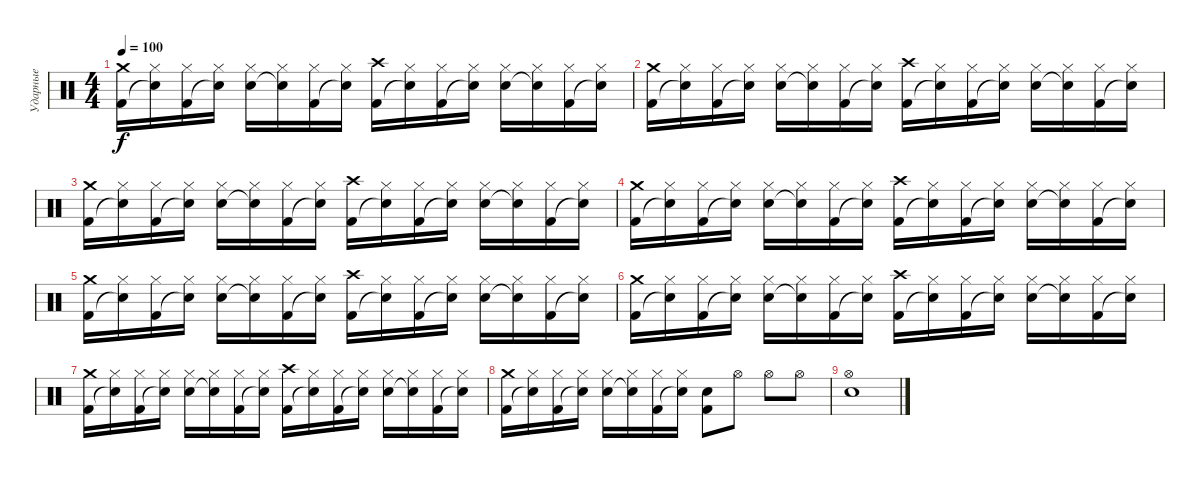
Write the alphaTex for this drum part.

\track ("Ударные" "Ударные") {instrument percussion}
\staff {score}
\articulation defaults
\ts (4 4)
\tempo 100
\clef neutral
\ks c
("Crash medium (hit)" "Kick (hit) 2").16{dy f} ("Hi-Hat (closed)" "Snare (hit)"{t}).16 ("Hi-Hat (closed)" "Kick (hit) 2").16 ("Hi-Hat (closed)" "Snare (hit)"{t}).16 ("Hi-Hat (closed)" "Snare (hit) 2").16 ("Hi-Hat (closed)" "Snare (hit)"{t}).16 ("Hi-Hat (closed)" "Kick (hit) 2").16 ("Hi-Hat (closed)" "Snare (hit)"{t}).16 ("Crash high (hit)" "Kick (hit) 2").16 ("Hi-Hat (closed)" "Snare (hit)"{t}).16 ("Hi-Hat (closed)" "Kick (hit) 2").16 ("Hi-Hat (closed)" "Snare (hit)"{t}).16 ("Hi-Hat (closed)" "Snare (hit) 2").16 ("Hi-Hat (closed)" "Snare (hit)"{t}).16 ("Hi-Hat (closed)" "Kick (hit) 2").16 ("Hi-Hat (closed)" "Snare (hit)"{t}).16 |
("Crash medium (hit)" "Kick (hit) 2").16 ("Hi-Hat (closed)" "Snare (hit)"{t}).16 ("Hi-Hat (closed)" "Kick (hit) 2").16 ("Hi-Hat (closed)" "Snare (hit)"{t}).16 ("Hi-Hat (closed)" "Snare (hit) 2").16 ("Hi-Hat (closed)" "Snare (hit)"{t}).16 ("Hi-Hat (closed)" "Kick (hit) 2").16 ("Hi-Hat (closed)" "Snare (hit)"{t}).16 ("Crash high (hit)" "Kick (hit) 2").16 ("Hi-Hat (closed)" "Snare (hit)"{t}).16 ("Hi-Hat (closed)" "Kick (hit) 2").16 ("Hi-Hat (closed)" "Snare (hit)"{t}).16 ("Hi-Hat (closed)" "Snare (hit) 2").16 ("Hi-Hat (closed)" "Snare (hit)"{t}).16 ("Hi-Hat (closed)" "Kick (hit) 2").16 ("Hi-Hat (closed)" "Snare (hit)"{t}).16 |
("Crash medium (hit)" "Kick (hit) 2").16 ("Hi-Hat (closed)" "Snare (hit)"{t}).16 ("Hi-Hat (closed)" "Kick (hit) 2").16 ("Hi-Hat (closed)" "Snare (hit)"{t}).16 ("Hi-Hat (closed)" "Snare (hit) 2").16 ("Hi-Hat (closed)" "Snare (hit)"{t}).16 ("Hi-Hat (closed)" "Kick (hit) 2").16 ("Hi-Hat (closed)" "Snare (hit)"{t}).16 ("Crash high (hit)" "Kick (hit) 2").16 ("Hi-Hat (closed)" "Snare (hit)"{t}).16 ("Hi-Hat (closed)" "Kick (hit) 2").16 ("Hi-Hat (closed)" "Snare (hit)"{t}).16 ("Hi-Hat (closed)" "Snare (hit) 2").16 ("Hi-Hat (closed)" "Snare (hit)"{t}).16 ("Hi-Hat (closed)" "Kick (hit) 2").16 ("Hi-Hat (closed)" "Snare (hit)"{t}).16 |
("Crash medium (hit)" "Kick (hit) 2").16 ("Hi-Hat (closed)" "Snare (hit)"{t}).16 ("Hi-Hat (closed)" "Kick (hit) 2").16 ("Hi-Hat (closed)" "Snare (hit)"{t}).16 ("Hi-Hat (closed)" "Snare (hit) 2").16 ("Hi-Hat (closed)" "Snare (hit)"{t}).16 ("Hi-Hat (closed)" "Kick (hit) 2").16 ("Hi-Hat (closed)" "Snare (hit)"{t}).16 ("Crash high (hit)" "Kick (hit) 2").16 ("Hi-Hat (closed)" "Snare (hit)"{t}).16 ("Hi-Hat (closed)" "Kick (hit) 2").16 ("Hi-Hat (closed)" "Snare (hit)"{t}).16 ("Hi-Hat (closed)" "Snare (hit) 2").16 ("Hi-Hat (closed)" "Snare (hit)"{t}).16 ("Hi-Hat (closed)" "Kick (hit) 2").16 ("Hi-Hat (closed)" "Snare (hit)"{t}).16 |
("Crash medium (hit)" "Kick (hit) 2").16 ("Hi-Hat (closed)" "Snare (hit)"{t}).16 ("Hi-Hat (closed)" "Kick (hit) 2").16 ("Hi-Hat (closed)" "Snare (hit)"{t}).16 ("Hi-Hat (closed)" "Snare (hit) 2").16 ("Hi-Hat (closed)" "Snare (hit)"{t}).16 ("Hi-Hat (closed)" "Kick (hit) 2").16 ("Hi-Hat (closed)" "Snare (hit)"{t}).16 ("Crash high (hit)" "Kick (hit) 2").16 ("Hi-Hat (closed)" "Snare (hit)"{t}).16 ("Hi-Hat (closed)" "Kick (hit) 2").16 ("Hi-Hat (closed)" "Snare (hit)"{t}).16 ("Hi-Hat (closed)" "Snare (hit) 2").16 ("Hi-Hat (closed)" "Snare (hit)"{t}).16 ("Hi-Hat (closed)" "Kick (hit) 2").16 ("Hi-Hat (closed)" "Snare (hit)"{t}).16 |
("Crash medium (hit)" "Kick (hit) 2").16 ("Hi-Hat (closed)" "Snare (hit)"{t}).16 ("Hi-Hat (closed)" "Kick (hit) 2").16 ("Hi-Hat (closed)" "Snare (hit)"{t}).16 ("Hi-Hat (closed)" "Snare (hit) 2").16 ("Hi-Hat (closed)" "Snare (hit)"{t}).16 ("Hi-Hat (closed)" "Kick (hit) 2").16 ("Hi-Hat (closed)" "Snare (hit)"{t}).16 ("Crash high (hit)" "Kick (hit) 2").16 ("Hi-Hat (closed)" "Snare (hit)"{t}).16 ("Hi-Hat (closed)" "Kick (hit) 2").16 ("Hi-Hat (closed)" "Snare (hit)"{t}).16 ("Hi-Hat (closed)" "Snare (hit) 2").16 ("Hi-Hat (closed)" "Snare (hit)"{t}).16 ("Hi-Hat (closed)" "Kick (hit) 2").16 ("Hi-Hat (closed)" "Snare (hit)"{t}).16 |
("Crash medium (hit)" "Kick (hit) 2").16 ("Hi-Hat (closed)" "Snare (hit)"{t}).16 ("Hi-Hat (closed)" "Kick (hit) 2").16 ("Hi-Hat (closed)" "Snare (hit)"{t}).16 ("Hi-Hat (closed)" "Snare (hit) 2").16 ("Hi-Hat (closed)" "Snare (hit)"{t}).16 ("Hi-Hat (closed)" "Kick (hit) 2").16 ("Hi-Hat (closed)" "Snare (hit)"{t}).16 ("Crash high (hit)" "Kick (hit) 2").16 ("Hi-Hat (closed)" "Snare (hit)"{t}).16 ("Hi-Hat (closed)" "Kick (hit) 2").16 ("Hi-Hat (closed)" "Snare (hit)"{t}).16 ("Hi-Hat (closed)" "Snare (hit) 2").16 ("Hi-Hat (closed)" "Snare (hit)"{t}).16 ("Hi-Hat (closed)" "Kick (hit) 2").16 ("Hi-Hat (closed)" "Snare (hit)"{t}).16 |
("Crash medium (hit)" "Kick (hit) 2").16 ("Hi-Hat (closed)" "Snare (hit)"{t}).16 ("Hi-Hat (closed)" "Kick (hit) 2").16 ("Hi-Hat (closed)" "Snare (hit)"{t}).16 ("Hi-Hat (closed)" "Snare (hit) 2").16 ("Hi-Hat (closed)" "Snare (hit)"{t}).16 ("Hi-Hat (closed)" "Kick (hit) 2").16 ("Hi-Hat (closed)" "Snare (hit)"{t}).16 ("Snare (hit) 2" "Kick (hit) 2").8 "Hi-Hat (open)".8 "Hi-Hat (open)".8 "Hi-Hat (open)".8 |
("Hi-Hat (open)" "Snare (hit) 2").1
